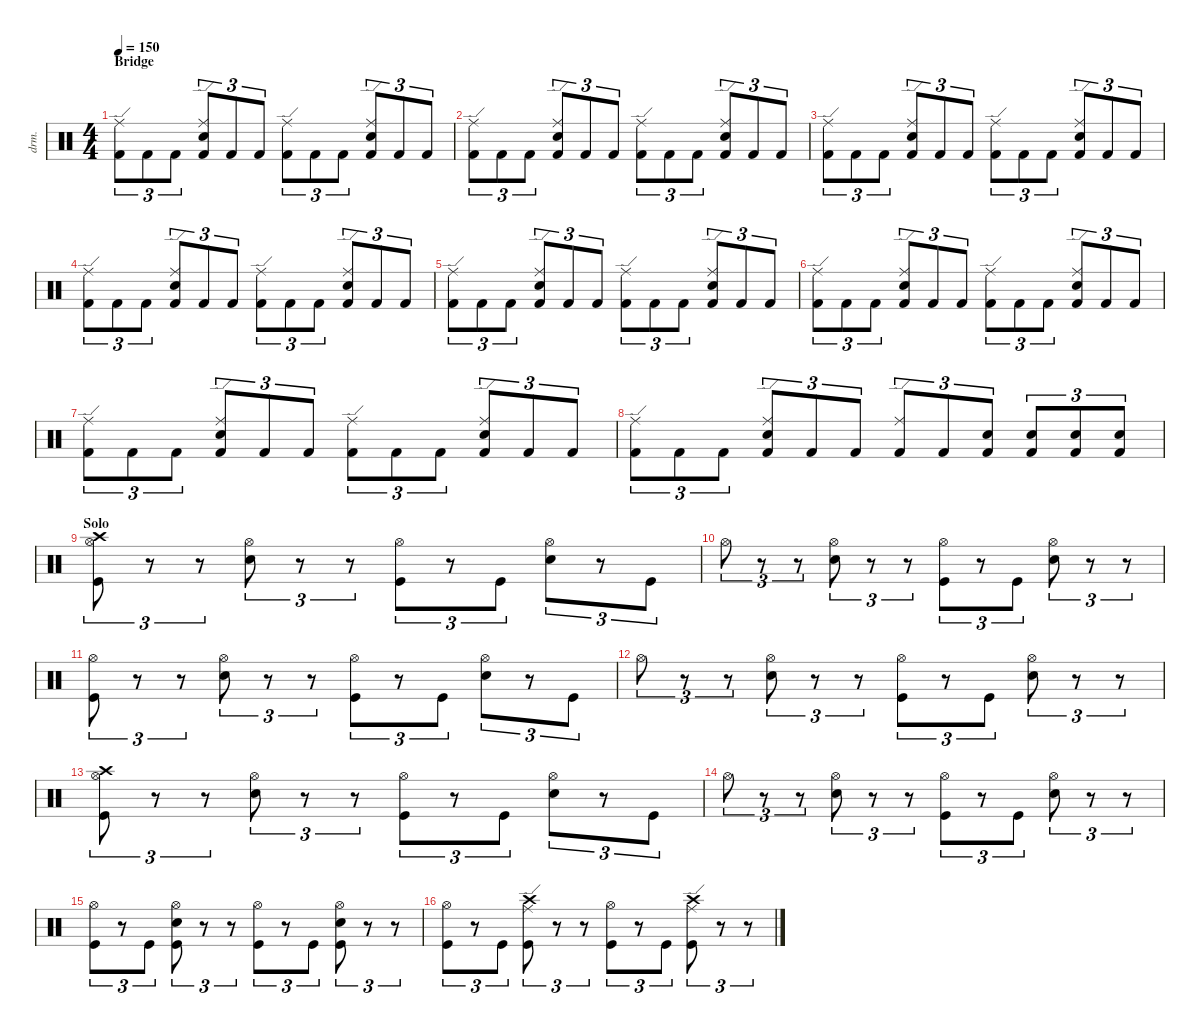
\defaultSystemsLayout 4
\hideDynamics
\bracketExtendMode nobrackets
\otherSystemsTrackNameOrientation horizontal
\track ("Drumkit" "drm.") {solo instrument percussion}
\staff {score}
\articulation defaults
\ts (4 4)
\section ("" "Bridge")
\scale
1.06666
\tempo 150
\accidentals auto
\clef neutral
\ottava regular
\simile none
\ks aminor
("Kick (hit) 2" "Ride (edge)").8{tu (3 2) dy mf beam Down} "Kick (hit) 2".8{tu (3 2) beam Down} "Kick (hit) 2".8{tu (3 2) beam Down} ("Kick (hit) 2" "Snare (hit) 2" "Ride (edge)").8{tu (3 2) beam Up} "Kick (hit) 2".8{tu (3 2) beam Up} "Kick (hit) 2".8{tu (3 2) beam Up} ("Kick (hit) 2" "Ride (edge)").8{tu (3 2) beam Down} "Kick (hit) 2".8{tu (3 2) beam Down} "Kick (hit) 2".8{tu (3 2) beam Down} ("Kick (hit) 2" "Snare (hit) 2" "Ride (edge)").8{tu (3 2) beam Up} "Kick (hit) 2".8{tu (3 2) beam Up} "Kick (hit) 2".8{tu (3 2) beam Up} |
\scale
0.977779 ("Kick (hit) 2" "Ride (edge)").8{tu (3 2) beam Down} "Kick (hit) 2".8{tu (3 2) beam Down} "Kick (hit) 2".8{tu (3 2) beam Down} ("Kick (hit) 2" "Snare (hit) 2" "Ride (edge)").8{tu (3 2) beam Up} "Kick (hit) 2".8{tu (3 2) beam Up} "Kick (hit) 2".8{tu (3 2) beam Up} ("Kick (hit) 2" "Ride (edge)").8{tu (3 2) beam Down} "Kick (hit) 2".8{tu (3 2) beam Down} "Kick (hit) 2".8{tu (3 2) beam Down} ("Kick (hit) 2" "Snare (hit) 2" "Ride (edge)").8{tu (3 2) beam Up} "Kick (hit) 2".8{tu (3 2) beam Up} "Kick (hit) 2".8{tu (3 2) beam Up} |
\scale
0.977779 ("Kick (hit) 2" "Ride (edge)").8{tu (3 2) beam Down} "Kick (hit) 2".8{tu (3 2) beam Down} "Kick (hit) 2".8{tu (3 2) beam Down} ("Kick (hit) 2" "Snare (hit) 2" "Ride (edge)").8{tu (3 2) beam Up} "Kick (hit) 2".8{tu (3 2) beam Up} "Kick (hit) 2".8{tu (3 2) beam Up} ("Kick (hit) 2" "Ride (edge)").8{tu (3 2) beam Down} "Kick (hit) 2".8{tu (3 2) beam Down} "Kick (hit) 2".8{tu (3 2) beam Down} ("Kick (hit) 2" "Snare (hit) 2" "Ride (edge)").8{tu (3 2) beam Up} "Kick (hit) 2".8{tu (3 2) beam Up} "Kick (hit) 2".8{tu (3 2) beam Up} |
\scale
0.977779 ("Kick (hit) 2" "Ride (edge)").8{tu (3 2) beam Down} "Kick (hit) 2".8{tu (3 2) beam Down} "Kick (hit) 2".8{tu (3 2) beam Down} ("Kick (hit) 2" "Snare (hit) 2" "Ride (edge)").8{tu (3 2) beam Up} "Kick (hit) 2".8{tu (3 2) beam Up} "Kick (hit) 2".8{tu (3 2) beam Up} ("Kick (hit) 2" "Ride (edge)").8{tu (3 2) beam Down} "Kick (hit) 2".8{tu (3 2) beam Down} "Kick (hit) 2".8{tu (3 2) beam Down} ("Kick (hit) 2" "Snare (hit) 2" "Ride (edge)").8{tu (3 2) beam Up} "Kick (hit) 2".8{tu (3 2) beam Up} "Kick (hit) 2".8{tu (3 2) beam Up} |
\scale
1.06224 ("Kick (hit) 2" "Ride (edge)").8{tu (3 2) beam Down} "Kick (hit) 2".8{tu (3 2) beam Down} "Kick (hit) 2".8{tu (3 2) beam Down} ("Kick (hit) 2" "Snare (hit) 2" "Ride (edge)").8{tu (3 2) beam Up} "Kick (hit) 2".8{tu (3 2) beam Up} "Kick (hit) 2".8{tu (3 2) beam Up} ("Kick (hit) 2" "Ride (edge)").8{tu (3 2) beam Down} "Kick (hit) 2".8{tu (3 2) beam Down} "Kick (hit) 2".8{tu (3 2) beam Down} ("Kick (hit) 2" "Snare (hit) 2" "Ride (edge)").8{tu (3 2) beam Up} "Kick (hit) 2".8{tu (3 2) beam Up} "Kick (hit) 2".8{tu (3 2) beam Up} |
\scale
0.973358 ("Kick (hit) 2" "Ride (edge)").8{tu (3 2) beam Down} "Kick (hit) 2".8{tu (3 2) beam Down} "Kick (hit) 2".8{tu (3 2) beam Down} ("Kick (hit) 2" "Snare (hit) 2" "Ride (edge)").8{tu (3 2) beam Up} "Kick (hit) 2".8{tu (3 2) beam Up} "Kick (hit) 2".8{tu (3 2) beam Up} ("Kick (hit) 2" "Ride (edge)").8{tu (3 2) beam Down} "Kick (hit) 2".8{tu (3 2) beam Down} "Kick (hit) 2".8{tu (3 2) beam Down} ("Kick (hit) 2" "Snare (hit) 2" "Ride (edge)").8{tu (3 2) beam Up} "Kick (hit) 2".8{tu (3 2) beam Up} "Kick (hit) 2".8{tu (3 2) beam Up} |
\scale
0.973358 ("Kick (hit) 2" "Ride (edge)").8{tu (3 2) beam Down} "Kick (hit) 2".8{tu (3 2) beam Down} "Kick (hit) 2".8{tu (3 2) beam Down} ("Kick (hit) 2" "Snare (hit) 2" "Ride (edge)").8{tu (3 2) beam Up} "Kick (hit) 2".8{tu (3 2) beam Up} "Kick (hit) 2".8{tu (3 2) beam Up} ("Kick (hit) 2" "Ride (edge)").8{tu (3 2) beam Down} "Kick (hit) 2".8{tu (3 2) beam Down} "Kick (hit) 2".8{tu (3 2) beam Down} ("Kick (hit) 2" "Snare (hit) 2" "Ride (edge)").8{tu (3 2) beam Up} "Kick (hit) 2".8{tu (3 2) beam Up} "Kick (hit) 2".8{tu (3 2) beam Up} |
\scale
0.991042 ("Kick (hit) 2" "Ride (edge)").8{tu (3 2) beam Down} "Kick (hit) 2".8{tu (3 2) beam Down} "Kick (hit) 2".8{tu (3 2) beam Down} ("Kick (hit) 2" "Snare (hit) 2" "Ride (edge)").8{tu (3 2) beam Up} "Kick (hit) 2".8{tu (3 2) beam Up} "Kick (hit) 2".8{tu (3 2) beam Up} ("Kick (hit) 2" "Ride (edge)").8{tu (3 2) beam Up} "Kick (hit) 2".8{tu (3 2) beam Up} ("Kick (hit) 2" "Snare (hit) 2").8{tu (3 2) beam Up} ("Kick (hit) 2" "Snare (hit) 2").8{tu (3 2) beam Up} ("Kick (hit) 2" "Snare (hit) 2").8{tu (3 2) beam Up} ("Kick (hit) 2" "Snare (hit) 2").8{tu (3 2) beam Up} |
\section ("" "Solo")
\scale
1.06666 ("Hi-Hat (open)" "Kick (hit)" "Crash high (hit)").8{tu (3 2) beam Down} r.8{tu (3 2) beam Down} r.8{tu (3 2) beam Down} ("Hi-Hat (open)" "Snare (hit) 2").8{tu (3 2) beam Down} r.8{tu (3 2) beam Down} r.8{tu (3 2) beam Down} ("Hi-Hat (open)" "Kick (hit)").8{tu (3 2) beam Down} r.8{tu (3 2) beam Down} "Kick (hit)".8{tu (3 2) beam Down} ("Hi-Hat (open)" "Snare (hit) 2").8{tu (3 2) beam Down} r.8{tu (3 2) beam Down} "Kick (hit)".8{tu (3 2) beam Down} |
\scale
0.977779 "Hi-Hat (open)".8{tu (3 2) beam Down} r.8{tu (3 2) beam Down} r.8{tu (3 2) beam Down} ("Hi-Hat (open)" "Snare (hit) 2").8{tu (3 2) beam Down} r.8{tu (3 2) beam Down} r.8{tu (3 2) beam Down} ("Hi-Hat (open)" "Kick (hit)").8{tu (3 2) beam Down} r.8{tu (3 2) beam Down} "Kick (hit)".8{tu (3 2) beam Down} ("Hi-Hat (open)" "Snare (hit) 2").8{tu (3 2) beam Down} r.8{tu (3 2) beam Down} r.8{tu (3 2) beam Down} |
\scale
0.977779 ("Hi-Hat (open)" "Kick (hit)").8{tu (3 2) beam Down} r.8{tu (3 2) beam Down} r.8{tu (3 2) beam Down} ("Hi-Hat (open)" "Snare (hit) 2").8{tu (3 2) beam Down} r.8{tu (3 2) beam Down} r.8{tu (3 2) beam Down} ("Hi-Hat (open)" "Kick (hit)").8{tu (3 2) beam Down} r.8{tu (3 2) beam Down} "Kick (hit)".8{tu (3 2) beam Down} ("Hi-Hat (open)" "Snare (hit) 2").8{tu (3 2) beam Down} r.8{tu (3 2) beam Down} "Kick (hit)".8{tu (3 2) beam Down} |
\scale
0.977779 "Hi-Hat (open)".8{tu (3 2) beam Down} r.8{tu (3 2) beam Down} r.8{tu (3 2) beam Down} ("Hi-Hat (open)" "Snare (hit) 2").8{tu (3 2) beam Down} r.8{tu (3 2) beam Down} r.8{tu (3 2) beam Down} ("Hi-Hat (open)" "Kick (hit)").8{tu (3 2) beam Down} r.8{tu (3 2) beam Down} "Kick (hit)".8{tu (3 2) beam Down} ("Hi-Hat (open)" "Snare (hit) 2").8{tu (3 2) beam Down} r.8{tu (3 2) beam Down} r.8{tu (3 2) beam Down} |
\scale
1.06666 ("Hi-Hat (open)" "Kick (hit)" "Crash high (hit)").8{tu (3 2) beam Down} r.8{tu (3 2) beam Down} r.8{tu (3 2) beam Down} ("Hi-Hat (open)" "Snare (hit) 2").8{tu (3 2) beam Down} r.8{tu (3 2) beam Down} r.8{tu (3 2) beam Down} ("Hi-Hat (open)" "Kick (hit)").8{tu (3 2) beam Down} r.8{tu (3 2) beam Down} "Kick (hit)".8{tu (3 2) beam Down} ("Hi-Hat (open)" "Snare (hit) 2").8{tu (3 2) beam Down} r.8{tu (3 2) beam Down} "Kick (hit)".8{tu (3 2) beam Down} |
\scale
0.977779 "Hi-Hat (open)".8{tu (3 2) beam Down} r.8{tu (3 2) beam Down} r.8{tu (3 2) beam Down} ("Hi-Hat (open)" "Snare (hit) 2").8{tu (3 2) beam Down} r.8{tu (3 2) beam Down} r.8{tu (3 2) beam Down} ("Hi-Hat (open)" "Kick (hit)").8{tu (3 2) beam Down} r.8{tu (3 2) beam Down} "Kick (hit)".8{tu (3 2) beam Down} ("Hi-Hat (open)" "Snare (hit) 2").8{tu (3 2) beam Down} r.8{tu (3 2) beam Down} r.8{tu (3 2) beam Down} |
\scale
0.977779 ("Kick (hit)" "Hi-Hat (open)").8{tu (3 2) beam Down} r.8{tu (3 2) beam Down} "Kick (hit)".8{tu (3 2) beam Down} ("Kick (hit)" "Hi-Hat (open)" "Snare (hit) 2").8{tu (3 2) beam Down} r.8{tu (3 2) beam Up} r.8{tu (3 2) beam Up} ("Kick (hit)" "Hi-Hat (open)").8{tu (3 2) beam Down} r.8{tu (3 2) beam Down} "Kick (hit)".8{tu (3 2) beam Down} ("Kick (hit)" "Hi-Hat (open)" "Snare (hit) 2").8{tu (3 2) beam Down} r.8{tu (3 2) beam Up} r.8{tu (3 2) beam Up} |
\scale
0.977779 ("Kick (hit)" "Hi-Hat (open)").8{tu (3 2) beam Down} r.8{tu (3 2) beam Down} "Kick (hit)".8{tu (3 2) beam Down} ("Kick (hit)" "Crash high (hit)" "Ride (edge)").8{tu (3 2) beam Down} r.8{tu (3 2) beam Up} r.8{tu (3 2) beam Up} ("Kick (hit)" "Hi-Hat (open)").8{tu (3 2) beam Down} r.8{tu (3 2) beam Down} "Kick (hit)".8{tu (3 2) beam Down} ("Kick (hit)" "Crash high (hit)" "Ride (edge)").8{tu (3 2) beam Down} r.8{tu (3 2) beam Up} r.8{tu (3 2) beam Up}
